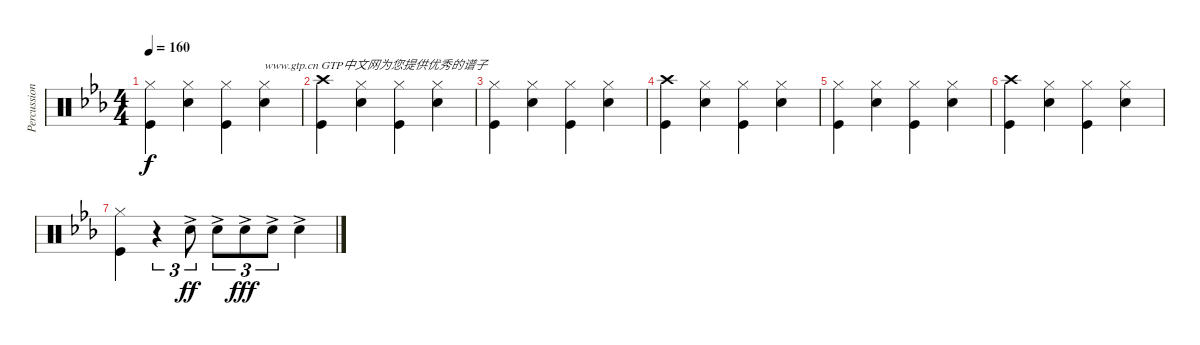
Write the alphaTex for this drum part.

\track ("Percussion" "Percussion") {instrument percussion}
\staff {score}
\articulation defaults
\ts (4 4)
\tempo 160
\clef neutral
\ks eb
("Hi-Hat (closed)" "Kick (hit)").4{dy f} ("Hi-Hat (closed)" "Snare (hit) 2").4 ("Hi-Hat (closed)" "Kick (hit)").4 ("Hi-Hat (closed)" "Snare (hit) 2").4{txt "www.gtp.cn GTP中文网为您提供优秀的谱子"} |
("Crash high (hit)" "Kick (hit)").4 ("Hi-Hat (closed)" "Snare (hit) 2").4 ("Hi-Hat (closed)" "Kick (hit)").4 ("Hi-Hat (closed)" "Snare (hit) 2").4 |
("Hi-Hat (closed)" "Kick (hit)").4 ("Hi-Hat (closed)" "Snare (hit) 2").4 ("Hi-Hat (closed)" "Kick (hit)").4 ("Hi-Hat (closed)" "Snare (hit) 2").4 |
("Crash high (hit)" "Kick (hit)").4 ("Hi-Hat (closed)" "Snare (hit) 2").4 ("Hi-Hat (closed)" "Kick (hit)").4 ("Hi-Hat (closed)" "Snare (hit) 2").4 |
("Hi-Hat (closed)" "Kick (hit)").4 ("Hi-Hat (closed)" "Snare (hit) 2").4 ("Hi-Hat (closed)" "Kick (hit)").4 ("Hi-Hat (closed)" "Snare (hit) 2").4 |
("Kick (hit)" "Crash high (hit)").4 ("Hi-Hat (closed)" "Snare (hit) 2").4 ("Hi-Hat (closed)" "Kick (hit)").4 ("Hi-Hat (closed)" "Snare (hit) 2").4 |
("Kick (hit)" "Hi-Hat (closed)").4 r.4{tu (3 2)} "Snare (hit) 2"{ac}.8{tu (3 2) dy ff} "Snare (hit) 2"{ac}.8{tu (3 2)} "Snare (hit) 2"{ac}.8{tu (3 2) dy fff} "Snare (hit) 2"{ac}.8{tu (3 2)} "Snare (hit) 2"{ac}.4
